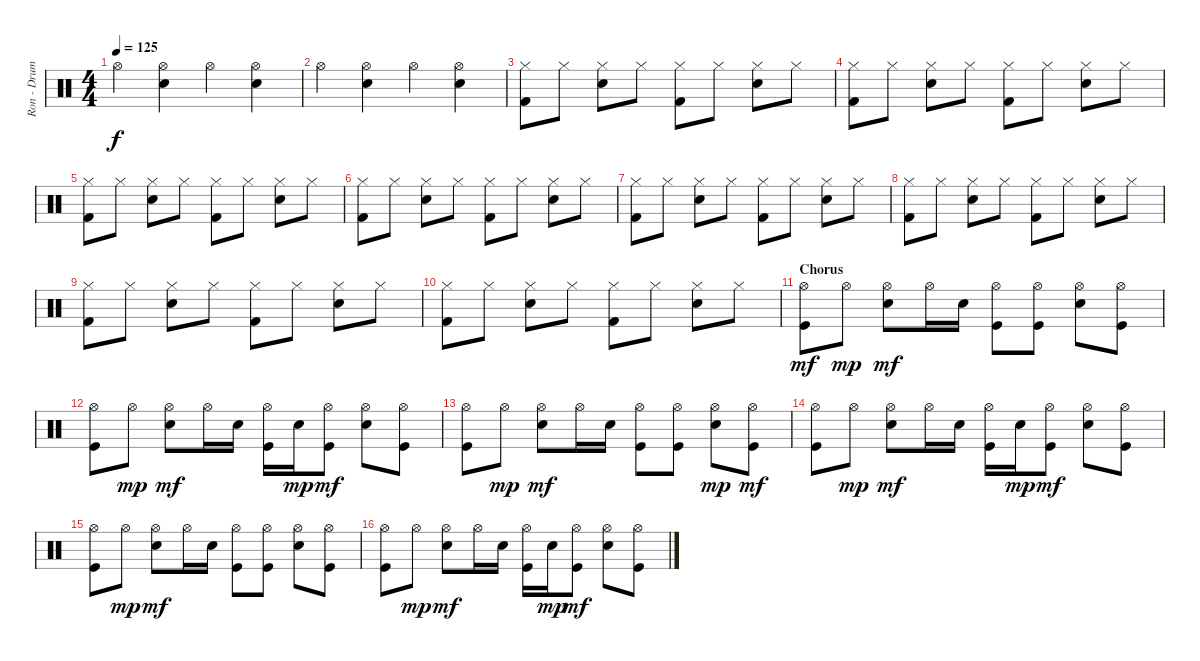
\track ("Ron - Drums" "Ron - Drum") {instrument percussion}
\staff {score}
\articulation defaults
\ts (4 4)
\tempo 125
\clef neutral
\ks c "Hi-Hat (open)".4{dy f}
("Hi-Hat (open)" "Electric Snare (hit)").4 "Hi-Hat (open)".4 ("Hi-Hat (open)" "Electric Snare (hit)").4 |
"Hi-Hat (open)".4 ("Hi-Hat (open)" "Electric Snare (hit)").4 "Hi-Hat (open)".4 ("Hi-Hat (open)" "Electric Snare (hit)").4 |
("Hi-Hat (closed)" "Kick (hit) 2").8 "Hi-Hat (closed)".8 ("Hi-Hat (closed)" "Snare (hit) 2").8 "Hi-Hat (closed)".8 ("Hi-Hat (closed)" "Kick (hit) 2").8 "Hi-Hat (closed)".8 ("Hi-Hat (closed)" "Snare (hit) 2").8 "Hi-Hat (closed)".8 |
("Hi-Hat (closed)" "Kick (hit) 2").8 "Hi-Hat (closed)".8 ("Hi-Hat (closed)" "Snare (hit) 2").8 "Hi-Hat (closed)".8 ("Hi-Hat (closed)" "Kick (hit) 2").8 "Hi-Hat (closed)".8 ("Hi-Hat (closed)" "Snare (hit) 2").8 "Hi-Hat (closed)".8 |
("Hi-Hat (closed)" "Kick (hit) 2").8 "Hi-Hat (closed)".8 ("Hi-Hat (closed)" "Snare (hit) 2").8 "Hi-Hat (closed)".8 ("Hi-Hat (closed)" "Kick (hit) 2").8 "Hi-Hat (closed)".8 ("Hi-Hat (closed)" "Snare (hit) 2").8 "Hi-Hat (closed)".8 |
("Hi-Hat (closed)" "Kick (hit) 2").8 "Hi-Hat (closed)".8 ("Hi-Hat (closed)" "Snare (hit) 2").8 "Hi-Hat (closed)".8 ("Hi-Hat (closed)" "Kick (hit) 2").8 "Hi-Hat (closed)".8 ("Hi-Hat (closed)" "Snare (hit) 2").8 "Hi-Hat (closed)".8 |
("Hi-Hat (closed)" "Kick (hit) 2").8 "Hi-Hat (closed)".8 ("Hi-Hat (closed)" "Snare (hit) 2").8 "Hi-Hat (closed)".8 ("Hi-Hat (closed)" "Kick (hit) 2").8 "Hi-Hat (closed)".8 ("Hi-Hat (closed)" "Snare (hit) 2").8 "Hi-Hat (closed)".8 |
("Hi-Hat (closed)" "Kick (hit) 2").8 "Hi-Hat (closed)".8 ("Hi-Hat (closed)" "Snare (hit) 2").8 "Hi-Hat (closed)".8 ("Hi-Hat (closed)" "Kick (hit) 2").8 "Hi-Hat (closed)".8 ("Hi-Hat (closed)" "Snare (hit) 2").8 "Hi-Hat (closed)".8 |
("Hi-Hat (closed)" "Kick (hit) 2").8 "Hi-Hat (closed)".8 ("Hi-Hat (closed)" "Snare (hit) 2").8 "Hi-Hat (closed)".8 ("Hi-Hat (closed)" "Kick (hit) 2").8 "Hi-Hat (closed)".8 ("Hi-Hat (closed)" "Snare (hit) 2").8 "Hi-Hat (closed)".8 |
("Hi-Hat (closed)" "Kick (hit) 2").8 "Hi-Hat (closed)".8 ("Hi-Hat (closed)" "Snare (hit) 2").8 "Hi-Hat (closed)".8 ("Hi-Hat (closed)" "Kick (hit) 2").8 "Hi-Hat (closed)".8 ("Hi-Hat (closed)" "Snare (hit) 2").8 "Hi-Hat (closed)".8 |
\section ("" "Chorus")
("Hi-Hat (open)" "Kick (hit)").8{dy mf} "Hi-Hat (open)".8{dy mp} ("Hi-Hat (open)" "Electric Snare (hit)").8{dy mf} "Hi-Hat (open)".16 "Electric Snare (hit)".16 ("Hi-Hat (open)" "Kick (hit)").8 ("Hi-Hat (open)" "Kick (hit)").8 ("Hi-Hat (open)" "Electric Snare (hit)").8 ("Hi-Hat (open)" "Kick (hit)").8 |
("Hi-Hat (open)" "Kick (hit)").8 "Hi-Hat (open)".8{dy mp} ("Hi-Hat (open)" "Electric Snare (hit)").8{dy mf} "Hi-Hat (open)".16 "Electric Snare (hit)".16 ("Hi-Hat (open)" "Kick (hit)").16 "Electric Snare (hit)".16{dy mp} ("Hi-Hat (open)" "Kick (hit)").8{dy mf} ("Hi-Hat (open)" "Electric Snare (hit)").8 ("Hi-Hat (open)" "Kick (hit)").8 |
("Hi-Hat (open)" "Kick (hit)").8 "Hi-Hat (open)".8{dy mp} ("Hi-Hat (open)" "Electric Snare (hit)").8{dy mf} "Hi-Hat (open)".16 "Electric Snare (hit)".16 ("Hi-Hat (open)" "Kick (hit)").8 ("Hi-Hat (open)" "Kick (hit)").8 ("Hi-Hat (open)" "Electric Snare (hit)").8{dy mp} ("Hi-Hat (open)" "Kick (hit)").8{dy mf} |
("Hi-Hat (open)" "Kick (hit)").8 "Hi-Hat (open)".8{dy mp} ("Hi-Hat (open)" "Electric Snare (hit)").8{dy mf} "Hi-Hat (open)".16 "Electric Snare (hit)".16 ("Hi-Hat (open)" "Kick (hit)").16 "Electric Snare (hit)".16{dy mp} ("Hi-Hat (open)" "Kick (hit)").8{dy mf} ("Hi-Hat (open)" "Electric Snare (hit)").8 ("Hi-Hat (open)" "Kick (hit)").8 |
("Hi-Hat (open)" "Kick (hit)").8 "Hi-Hat (open)".8{dy mp} ("Hi-Hat (open)" "Electric Snare (hit)").8{dy mf} "Hi-Hat (open)".16 "Electric Snare (hit)".16 ("Hi-Hat (open)" "Kick (hit)").8 ("Hi-Hat (open)" "Kick (hit)").8 ("Hi-Hat (open)" "Electric Snare (hit)").8 ("Hi-Hat (open)" "Kick (hit)").8 |
("Hi-Hat (open)" "Kick (hit)").8 "Hi-Hat (open)".8{dy mp} ("Hi-Hat (open)" "Electric Snare (hit)").8{dy mf} "Hi-Hat (open)".16 "Electric Snare (hit)".16 ("Hi-Hat (open)" "Kick (hit)").16 "Electric Snare (hit)".16{dy mp} ("Hi-Hat (open)" "Kick (hit)").8{dy mf} ("Hi-Hat (open)" "Electric Snare (hit)").8 ("Hi-Hat (open)" "Kick (hit)").8
